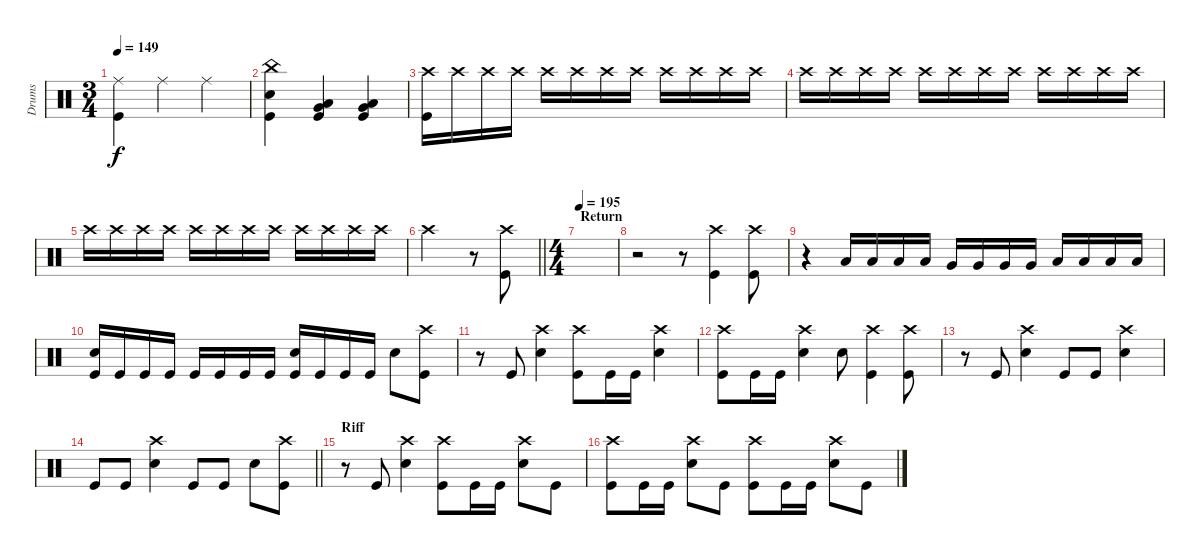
\track ("Drums" "Drums") {instrument percussion}
\staff {score}
\articulation defaults
\ts (3 4)
\tempo 149
\clef neutral
\ks c
("Kick (hit)" "Ride (middle)").4{dy f} "Ride (middle)".4 "Ride (middle)".4 |
("Snare (hit) 2" "China (hit)" "Kick (hit)").4 ("Kick (hit)" "Very Low Tom (hit)" "Low Tom (hit)").4 ("Very Low Tom (hit)" "Low Floor Tom (hit)" "Kick (hit)").4 |
("Kick (hit)" "Crash high (hit)").16 "Crash high (hit)".16 "Crash high (hit)".16 "Crash high (hit)".16 "Crash high (hit)".16 "Crash high (hit)".16 "Crash high (hit)".16 "Crash high (hit)".16 "Crash high (hit)".16 "Crash high (hit)".16 "Crash high (hit)".16 "Crash high (hit)".16 |
"Crash high (hit)".16 "Crash high (hit)".16 "Crash high (hit)".16 "Crash high (hit)".16 "Crash high (hit)".16 "Crash high (hit)".16 "Crash high (hit)".16 "Crash high (hit)".16 "Crash high (hit)".16 "Crash high (hit)".16 "Crash high (hit)".16 "Crash high (hit)".16 |
"Crash high (hit)".16 "Crash high (hit)".16 "Crash high (hit)".16 "Crash high (hit)".16 "Crash high (hit)".16 "Crash high (hit)".16 "Crash high (hit)".16 "Crash high (hit)".16 "Crash high (hit)".16 "Crash high (hit)".16 "Crash high (hit)".16 "Crash high (hit)".16 |
\barLineRight lightlight "Crash high (hit)".2
r.8 ("Kick (hit)" "Crash high (hit)").8 |
\ts (4 4)
\section ("" "Return")
\tempo 195
|
r.2 r.8 ("Kick (hit)" "Crash high (hit)").4 ("Kick (hit)" "Crash high (hit)").8 |
r.4 "Low Tom (hit)".16 "Low Tom (hit)".16 "Low Tom (hit)".16 "Low Tom (hit)".16 "Very Low Tom (hit)".16 "Very Low Tom (hit)".16 "Very Low Tom (hit)".16 "Very Low Tom (hit)".16 "Low Floor Tom (hit)".16 "Low Floor Tom (hit)".16 "Low Floor Tom (hit)".16 "Low Floor Tom (hit)".16 |
("Snare (hit) 2" "Kick (hit)").16 "Kick (hit)".16 "Kick (hit)".16 "Kick (hit)".16 "Kick (hit)".16 "Kick (hit)".16 "Kick (hit)".16 "Kick (hit)".16 ("Snare (hit) 2" "Kick (hit)").16 "Kick (hit)".16 "Kick (hit)".16 "Kick (hit)".16 "Snare (hit) 2".8 ("Kick (hit)" "Crash high (hit)").8 |
r.8 "Kick (hit)".8 ("Snare (hit) 2" "Crash high (hit)").4 ("Kick (hit)" "Crash high (hit)").8 "Kick (hit)".16 "Kick (hit)".16 ("Snare (hit) 2" "Crash high (hit)").4 |
("Kick (hit)" "Crash high (hit)").8 "Kick (hit)".16 "Kick (hit)".16 ("Snare (hit) 2" "Crash high (hit)").4 "Snare (hit) 2".8 ("Kick (hit)" "Crash high (hit)").4 ("Kick (hit)" "Crash high (hit)").8 |
r.8 "Kick (hit)".8 ("Snare (hit) 2" "Crash high (hit)").4 "Kick (hit)".8 "Kick (hit)".8 ("Snare (hit) 2" "Crash high (hit)").4 |
\barLineRight lightlight "Kick (hit)".8 "Kick (hit)".8
("Snare (hit) 2" "Crash high (hit)").4 "Kick (hit)".8 "Kick (hit)".8 "Snare (hit) 2".8 ("Kick (hit)" "Crash high (hit)").8 |
\section ("" "Riff")
r.8 "Kick (hit)".8 ("Snare (hit) 2" "Crash high (hit)").4 ("Kick (hit)" "Crash high (hit)").8 "Kick (hit)".16 "Kick (hit)".16 ("Snare (hit) 2" "Crash high (hit)").8 "Kick (hit)".8 |
("Kick (hit)" "Crash high (hit)").8 "Kick (hit)".16 "Kick (hit)".16 ("Snare (hit) 2" "Crash high (hit)").8 "Kick (hit)".8 ("Kick (hit)" "Crash high (hit)").8 "Kick (hit)".16 "Kick (hit)".16 ("Snare (hit) 2" "Crash high (hit)").8 "Kick (hit)".8
